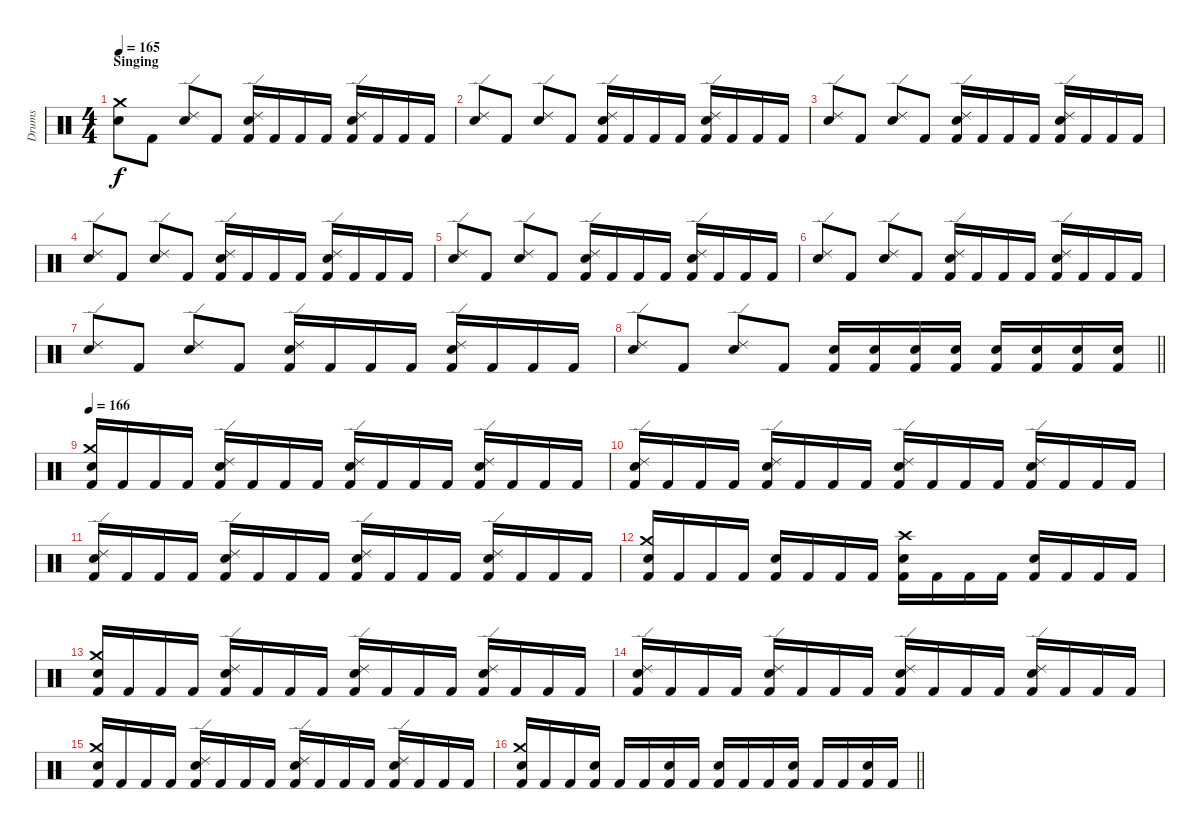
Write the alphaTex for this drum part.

\track ("Drums" "Drums") {instrument percussion}
\staff {score}
\articulation defaults
\ts (4 4)
\section ("" "Singing")
\tempo 165
\clef neutral
\ks c
("Snare (hit) 2" "Crash medium (hit)").8{dy f} "Kick (hit) 2".8 ("Snare (hit) 2" "Ride (edge) 2").8 "Kick (hit) 2".8 ("Kick (hit) 2" "Snare (hit) 2" "Ride (edge) 2").16 "Kick (hit) 2".16 "Kick (hit) 2".16 "Kick (hit) 2".16 ("Kick (hit) 2" "Snare (hit) 2" "Ride (edge) 2").16 "Kick (hit) 2".16 "Kick (hit) 2".16 "Kick (hit) 2".16 |
("Snare (hit) 2" "Ride (edge) 2").8 "Kick (hit) 2".8 ("Snare (hit) 2" "Ride (edge) 2").8 "Kick (hit) 2".8 ("Kick (hit) 2" "Snare (hit) 2" "Ride (edge) 2").16 "Kick (hit) 2".16 "Kick (hit) 2".16 "Kick (hit) 2".16 ("Kick (hit) 2" "Snare (hit) 2" "Ride (edge) 2").16 "Kick (hit) 2".16 "Kick (hit) 2".16 "Kick (hit) 2".16 |
("Snare (hit) 2" "Ride (edge) 2").8 "Kick (hit) 2".8 ("Snare (hit) 2" "Ride (edge) 2").8 "Kick (hit) 2".8 ("Kick (hit) 2" "Snare (hit) 2" "Ride (edge) 2").16 "Kick (hit) 2".16 "Kick (hit) 2".16 "Kick (hit) 2".16 ("Kick (hit) 2" "Snare (hit) 2" "Ride (edge) 2").16 "Kick (hit) 2".16 "Kick (hit) 2".16 "Kick (hit) 2".16 |
("Snare (hit) 2" "Ride (edge) 2").8 "Kick (hit) 2".8 ("Snare (hit) 2" "Ride (edge) 2").8 "Kick (hit) 2".8 ("Kick (hit) 2" "Snare (hit) 2" "Ride (edge) 2").16 "Kick (hit) 2".16 "Kick (hit) 2".16 "Kick (hit) 2".16 ("Kick (hit) 2" "Snare (hit) 2" "Ride (edge) 2").16 "Kick (hit) 2".16 "Kick (hit) 2".16 "Kick (hit) 2".16 |
("Snare (hit) 2" "Ride (edge) 2").8 "Kick (hit) 2".8 ("Snare (hit) 2" "Ride (edge) 2").8 "Kick (hit) 2".8 ("Kick (hit) 2" "Snare (hit) 2" "Ride (edge) 2").16 "Kick (hit) 2".16 "Kick (hit) 2".16 "Kick (hit) 2".16 ("Kick (hit) 2" "Snare (hit) 2" "Ride (edge) 2").16 "Kick (hit) 2".16 "Kick (hit) 2".16 "Kick (hit) 2".16 |
("Snare (hit) 2" "Ride (edge) 2").8 "Kick (hit) 2".8 ("Snare (hit) 2" "Ride (edge) 2").8 "Kick (hit) 2".8 ("Kick (hit) 2" "Snare (hit) 2" "Ride (edge) 2").16 "Kick (hit) 2".16 "Kick (hit) 2".16 "Kick (hit) 2".16 ("Kick (hit) 2" "Snare (hit) 2" "Ride (edge) 2").16 "Kick (hit) 2".16 "Kick (hit) 2".16 "Kick (hit) 2".16 |
("Snare (hit) 2" "Ride (edge) 2").8 "Kick (hit) 2".8 ("Snare (hit) 2" "Ride (edge) 2").8 "Kick (hit) 2".8 ("Kick (hit) 2" "Snare (hit) 2" "Ride (edge) 2").16 "Kick (hit) 2".16 "Kick (hit) 2".16 "Kick (hit) 2".16 ("Kick (hit) 2" "Snare (hit) 2" "Ride (edge) 2").16 "Kick (hit) 2".16 "Kick (hit) 2".16 "Kick (hit) 2".16 |
\barLineRight lightlight
("Snare (hit) 2" "Ride (edge) 2").8 "Kick (hit) 2".8 ("Snare (hit) 2" "Ride (edge) 2").8 "Kick (hit) 2".8 ("Kick (hit) 2" "Snare (hit) 2").16 ("Kick (hit) 2" "Snare (hit) 2").16 ("Kick (hit) 2" "Snare (hit) 2").16 ("Kick (hit) 2" "Snare (hit) 2").16 ("Kick (hit) 2" "Snare (hit) 2").16 ("Kick (hit) 2" "Snare (hit) 2").16 ("Kick (hit) 2" "Snare (hit) 2").16 ("Kick (hit) 2" "Snare (hit) 2").16 |
\section ("" "")
\tempo 166
("Kick (hit) 2" "Snare (hit) 2" "Crash medium (hit)").16 "Kick (hit) 2".16 "Kick (hit) 2".16 "Kick (hit) 2".16 ("Kick (hit) 2" "Snare (hit) 2" "Ride (edge) 2").16 "Kick (hit) 2".16 "Kick (hit) 2".16 "Kick (hit) 2".16 ("Kick (hit) 2" "Snare (hit) 2" "Ride (edge) 2").16 "Kick (hit) 2".16 "Kick (hit) 2".16 "Kick (hit) 2".16 ("Kick (hit) 2" "Snare (hit) 2" "Ride (edge) 2").16 "Kick (hit) 2".16 "Kick (hit) 2".16 "Kick (hit) 2".16 |
("Kick (hit) 2" "Snare (hit) 2" "Ride (edge) 2").16 "Kick (hit) 2".16 "Kick (hit) 2".16 "Kick (hit) 2".16 ("Kick (hit) 2" "Snare (hit) 2" "Ride (edge) 2").16 "Kick (hit) 2".16 "Kick (hit) 2".16 "Kick (hit) 2".16 ("Kick (hit) 2" "Snare (hit) 2" "Ride (edge) 2").16 "Kick (hit) 2".16 "Kick (hit) 2".16 "Kick (hit) 2".16 ("Kick (hit) 2" "Snare (hit) 2" "Ride (edge) 2").16 "Kick (hit) 2".16 "Kick (hit) 2".16 "Kick (hit) 2".16 |
("Kick (hit) 2" "Snare (hit) 2" "Ride (edge) 2").16 "Kick (hit) 2".16 "Kick (hit) 2".16 "Kick (hit) 2".16 ("Kick (hit) 2" "Snare (hit) 2" "Ride (edge) 2").16 "Kick (hit) 2".16 "Kick (hit) 2".16 "Kick (hit) 2".16 ("Kick (hit) 2" "Snare (hit) 2" "Ride (edge) 2").16 "Kick (hit) 2".16 "Kick (hit) 2".16 "Kick (hit) 2".16 ("Kick (hit) 2" "Snare (hit) 2" "Ride (edge) 2").16 "Kick (hit) 2".16 "Kick (hit) 2".16 "Kick (hit) 2".16 |
("Kick (hit) 2" "Snare (hit) 2" "Crash medium (hit)").16 "Kick (hit) 2".16 "Kick (hit) 2".16 "Kick (hit) 2".16 ("Kick (hit) 2" "Snare (hit) 2").16 "Kick (hit) 2".16 "Kick (hit) 2".16 "Kick (hit) 2".16 ("Kick (hit) 2" "Snare (hit) 2" "Crash high (hit)").16 "Kick (hit) 2".16 "Kick (hit) 2".16 "Kick (hit) 2".16 ("Kick (hit) 2" "Snare (hit) 2").16 "Kick (hit) 2".16 "Kick (hit) 2".16 "Kick (hit) 2".16 |
("Kick (hit) 2" "Snare (hit) 2" "Crash medium (hit)").16 "Kick (hit) 2".16 "Kick (hit) 2".16 "Kick (hit) 2".16 ("Kick (hit) 2" "Snare (hit) 2" "Ride (edge) 2").16 "Kick (hit) 2".16 "Kick (hit) 2".16 "Kick (hit) 2".16 ("Kick (hit) 2" "Snare (hit) 2" "Ride (edge) 2").16 "Kick (hit) 2".16 "Kick (hit) 2".16 "Kick (hit) 2".16 ("Kick (hit) 2" "Snare (hit) 2" "Ride (edge) 2").16 "Kick (hit) 2".16 "Kick (hit) 2".16 "Kick (hit) 2".16 |
("Kick (hit) 2" "Snare (hit) 2" "Ride (edge) 2").16 "Kick (hit) 2".16 "Kick (hit) 2".16 "Kick (hit) 2".16 ("Kick (hit) 2" "Snare (hit) 2" "Ride (edge) 2").16 "Kick (hit) 2".16 "Kick (hit) 2".16 "Kick (hit) 2".16 ("Kick (hit) 2" "Snare (hit) 2" "Ride (edge) 2").16 "Kick (hit) 2".16 "Kick (hit) 2".16 "Kick (hit) 2".16 ("Kick (hit) 2" "Snare (hit) 2" "Ride (edge) 2").16 "Kick (hit) 2".16 "Kick (hit) 2".16 "Kick (hit) 2".16 |
("Kick (hit) 2" "Snare (hit) 2" "Crash medium (hit)").16 "Kick (hit) 2".16 "Kick (hit) 2".16 "Kick (hit) 2".16 ("Kick (hit) 2" "Snare (hit) 2" "Ride (edge) 2").16 "Kick (hit) 2".16 "Kick (hit) 2".16 "Kick (hit) 2".16 ("Kick (hit) 2" "Snare (hit) 2" "Ride (edge) 2").16 "Kick (hit) 2".16 "Kick (hit) 2".16 "Kick (hit) 2".16 ("Kick (hit) 2" "Snare (hit) 2" "Ride (edge) 2").16 "Kick (hit) 2".16 "Kick (hit) 2".16 "Kick (hit) 2".16 |
\barLineRight lightlight
("Kick (hit) 2" "Snare (hit) 2" "Crash medium (hit)").16 "Kick (hit) 2".16 "Kick (hit) 2".16 ("Kick (hit) 2" "Snare (hit) 2").16 "Kick (hit) 2".16 "Kick (hit) 2".16 ("Kick (hit) 2" "Snare (hit) 2").16 "Kick (hit) 2".16 ("Kick (hit) 2" "Snare (hit) 2").16 "Kick (hit) 2".16 "Kick (hit) 2".16 ("Kick (hit) 2" "Snare (hit) 2").16 "Kick (hit) 2".16 "Kick (hit) 2".16 ("Kick (hit) 2" "Snare (hit) 2").16 "Kick (hit) 2".16
